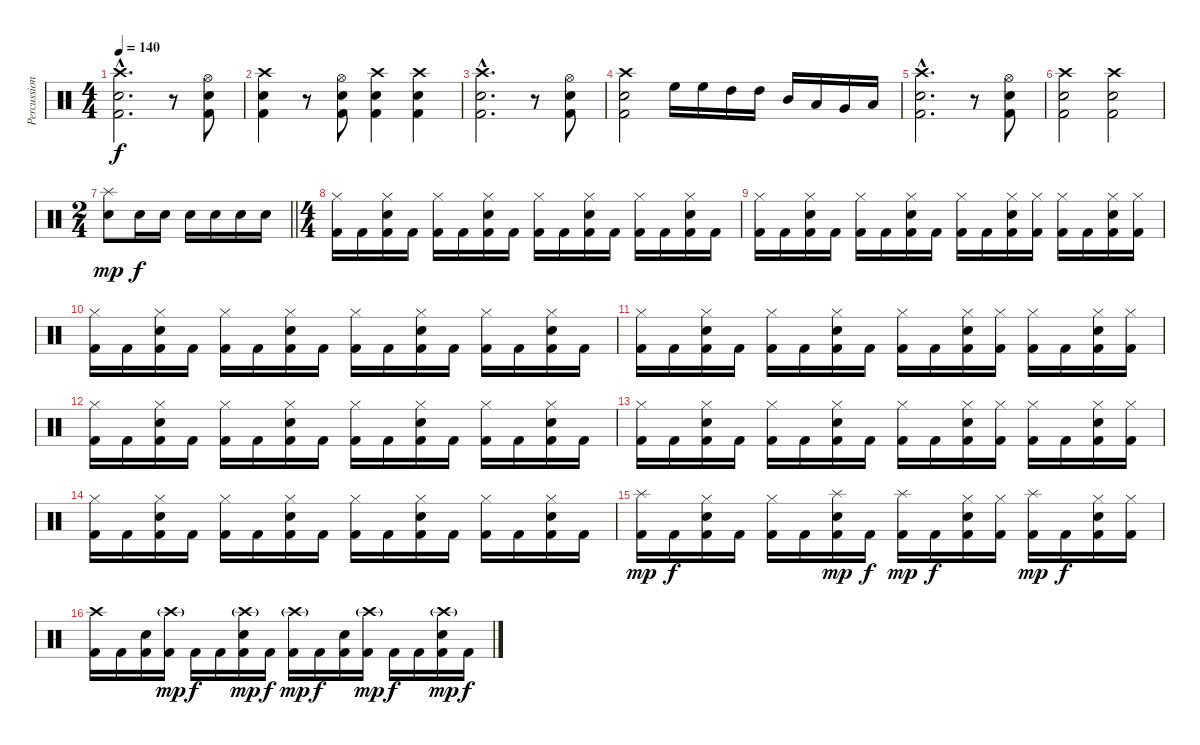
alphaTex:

\track ("Percussion" "Percussion") {instrument percussion}
\staff {score}
\articulation defaults
\ts (4 4)
\tempo 140
\clef neutral
\ks c
("Crash high (hit)"{hac} "Electric Snare (hit)"{hac} "Kick (hit) 2"{hac}).2{d dy f} r.8 ("Hi-Hat (open)" "Electric Snare (hit)" "Kick (hit) 2").8 |
("Crash high (hit)" "Electric Snare (hit)" "Kick (hit) 2").4 r.8 ("Hi-Hat (open)" "Electric Snare (hit)" "Kick (hit) 2").8 ("Crash high (hit)" "Electric Snare (hit)" "Kick (hit) 2").4 ("Crash high (hit)" "Electric Snare (hit)" "Kick (hit) 2").4 |
("Crash high (hit)"{hac} "Electric Snare (hit)"{hac} "Kick (hit) 2"{hac}).2{d} r.8 ("Hi-Hat (open)" "Electric Snare (hit)" "Kick (hit) 2").8 |
("Crash high (hit)" "Electric Snare (hit)" "Kick (hit) 2").2 "High Floor Tom (hit)".16 "High Floor Tom (hit)".16 "High Tom (hit)".16 "High Tom (hit)".16 "Mid Tom (hit)".16 "Low Tom (hit)".16 "Very Low Tom (hit)".16 "Low Floor Tom (hit)".16 |
("Crash high (hit)"{hac} "Electric Snare (hit)"{hac} "Kick (hit) 2"{hac}).2{d} r.8 ("Hi-Hat (open)" "Electric Snare (hit)" "Kick (hit) 2").8 |
("Crash high (hit)" "Electric Snare (hit)" "Kick (hit) 2").2 ("Crash high (hit)" "Electric Snare (hit)" "Kick (hit) 2").2 |
\ts (2 4)
\barLineRight lightlight
("Splash (hit)" "Electric Snare (hit)").8{dy mp} "Electric Snare (hit)".16{dy f} "Electric Snare (hit)".16 "Electric Snare (hit)".16 "Electric Snare (hit)".16 "Electric Snare (hit)".16 "Electric Snare (hit)".16 |
\ts (4 4)
("Hi-Hat (closed)" "Kick (hit) 2").16 "Kick (hit) 2".16 ("Hi-Hat (closed)" "Electric Snare (hit)" "Kick (hit) 2").16 "Kick (hit) 2".16 ("Hi-Hat (closed)" "Kick (hit) 2").16 "Kick (hit) 2".16 ("Hi-Hat (closed)" "Electric Snare (hit)" "Kick (hit) 2").16 "Kick (hit) 2".16 ("Hi-Hat (closed)" "Kick (hit) 2").16 "Kick (hit) 2".16 ("Hi-Hat (closed)" "Electric Snare (hit)" "Kick (hit) 2").16 "Kick (hit) 2".16 ("Hi-Hat (closed)" "Kick (hit) 2").16 "Kick (hit) 2".16 ("Hi-Hat (closed)" "Electric Snare (hit)" "Kick (hit) 2").16 "Kick (hit) 2".16 |
("Hi-Hat (closed)" "Kick (hit) 2").16 "Kick (hit) 2".16 ("Hi-Hat (closed)" "Electric Snare (hit)" "Kick (hit) 2").16 "Kick (hit) 2".16 ("Hi-Hat (closed)" "Kick (hit) 2").16 "Kick (hit) 2".16 ("Hi-Hat (closed)" "Electric Snare (hit)" "Kick (hit) 2").16 "Kick (hit) 2".16 ("Hi-Hat (closed)" "Kick (hit) 2").16 "Kick (hit) 2".16 ("Hi-Hat (closed)" "Electric Snare (hit)" "Kick (hit) 2").16 ("Hi-Hat (closed)" "Kick (hit) 2").16 ("Hi-Hat (closed)" "Kick (hit) 2").16 "Kick (hit) 2".16 ("Hi-Hat (closed)" "Electric Snare (hit)" "Kick (hit) 2").16 ("Hi-Hat (closed)" "Kick (hit) 2").16 |
("Hi-Hat (closed)" "Kick (hit) 2").16 "Kick (hit) 2".16 ("Hi-Hat (closed)" "Electric Snare (hit)" "Kick (hit) 2").16 "Kick (hit) 2".16 ("Hi-Hat (closed)" "Kick (hit) 2").16 "Kick (hit) 2".16 ("Hi-Hat (closed)" "Electric Snare (hit)" "Kick (hit) 2").16 "Kick (hit) 2".16 ("Hi-Hat (closed)" "Kick (hit) 2").16 "Kick (hit) 2".16 ("Hi-Hat (closed)" "Electric Snare (hit)" "Kick (hit) 2").16 "Kick (hit) 2".16 ("Hi-Hat (closed)" "Kick (hit) 2").16 "Kick (hit) 2".16 ("Hi-Hat (closed)" "Electric Snare (hit)" "Kick (hit) 2").16 "Kick (hit) 2".16 |
("Hi-Hat (closed)" "Kick (hit) 2").16 "Kick (hit) 2".16 ("Hi-Hat (closed)" "Electric Snare (hit)" "Kick (hit) 2").16 "Kick (hit) 2".16 ("Hi-Hat (closed)" "Kick (hit) 2").16 "Kick (hit) 2".16 ("Hi-Hat (closed)" "Electric Snare (hit)" "Kick (hit) 2").16 "Kick (hit) 2".16 ("Hi-Hat (closed)" "Kick (hit) 2").16 "Kick (hit) 2".16 ("Hi-Hat (closed)" "Electric Snare (hit)" "Kick (hit) 2").16 ("Hi-Hat (closed)" "Kick (hit) 2").16 ("Hi-Hat (closed)" "Kick (hit) 2").16 "Kick (hit) 2".16 ("Hi-Hat (closed)" "Electric Snare (hit)" "Kick (hit) 2").16 ("Hi-Hat (closed)" "Kick (hit) 2").16 |
("Hi-Hat (closed)" "Kick (hit) 2").16 "Kick (hit) 2".16 ("Hi-Hat (closed)" "Electric Snare (hit)" "Kick (hit) 2").16 "Kick (hit) 2".16 ("Hi-Hat (closed)" "Kick (hit) 2").16 "Kick (hit) 2".16 ("Hi-Hat (closed)" "Electric Snare (hit)" "Kick (hit) 2").16 "Kick (hit) 2".16 ("Hi-Hat (closed)" "Kick (hit) 2").16 "Kick (hit) 2".16 ("Hi-Hat (closed)" "Electric Snare (hit)" "Kick (hit) 2").16 "Kick (hit) 2".16 ("Hi-Hat (closed)" "Kick (hit) 2").16 "Kick (hit) 2".16 ("Hi-Hat (closed)" "Electric Snare (hit)" "Kick (hit) 2").16 "Kick (hit) 2".16 |
("Hi-Hat (closed)" "Kick (hit) 2").16 "Kick (hit) 2".16 ("Hi-Hat (closed)" "Electric Snare (hit)" "Kick (hit) 2").16 "Kick (hit) 2".16 ("Hi-Hat (closed)" "Kick (hit) 2").16 "Kick (hit) 2".16 ("Hi-Hat (closed)" "Electric Snare (hit)" "Kick (hit) 2").16 "Kick (hit) 2".16 ("Hi-Hat (closed)" "Kick (hit) 2").16 "Kick (hit) 2".16 ("Hi-Hat (closed)" "Electric Snare (hit)" "Kick (hit) 2").16 ("Hi-Hat (closed)" "Kick (hit) 2").16 ("Hi-Hat (closed)" "Kick (hit) 2").16 "Kick (hit) 2".16 ("Hi-Hat (closed)" "Electric Snare (hit)" "Kick (hit) 2").16 ("Hi-Hat (closed)" "Kick (hit) 2").16 |
("Hi-Hat (closed)" "Kick (hit) 2").16 "Kick (hit) 2".16 ("Hi-Hat (closed)" "Electric Snare (hit)" "Kick (hit) 2").16 "Kick (hit) 2".16 ("Hi-Hat (closed)" "Kick (hit) 2").16 "Kick (hit) 2".16 ("Hi-Hat (closed)" "Electric Snare (hit)" "Kick (hit) 2").16 "Kick (hit) 2".16 ("Hi-Hat (closed)" "Kick (hit) 2").16 "Kick (hit) 2".16 ("Hi-Hat (closed)" "Electric Snare (hit)" "Kick (hit) 2").16 "Kick (hit) 2".16 ("Hi-Hat (closed)" "Kick (hit) 2").16 "Kick (hit) 2".16 ("Hi-Hat (closed)" "Electric Snare (hit)" "Kick (hit) 2").16 "Kick (hit) 2".16 |
("Splash (hit)" "Kick (hit) 2").16{dy mp} "Kick (hit) 2".16{dy f} ("Hi-Hat (closed)" "Electric Snare (hit)" "Kick (hit) 2").16 "Kick (hit) 2".16 ("Hi-Hat (closed)" "Kick (hit) 2").16 "Kick (hit) 2".16 ("Splash (hit)" "Electric Snare (hit)" "Kick (hit) 2").16{dy mp} "Kick (hit) 2".16{dy f} ("Splash (hit)" "Kick (hit) 2").16{dy mp} "Kick (hit) 2".16{dy f} ("Hi-Hat (closed)" "Electric Snare (hit)" "Kick (hit) 2").16 ("Hi-Hat (closed)" "Kick (hit) 2").16 ("Splash (hit)" "Kick (hit) 2").16{dy mp} "Kick (hit) 2".16{dy f} ("Hi-Hat (closed)" "Electric Snare (hit)" "Kick (hit) 2").16 ("Hi-Hat (closed)" "Kick (hit) 2").16 |
("Crash high (hit)" "Kick (hit) 2").16 "Kick (hit) 2".16 ("Electric Snare (hit)" "Kick (hit) 2").16 ("Crash high (hit)"{g} "Kick (hit) 2").16{dy mp} "Kick (hit) 2".16{dy f} "Kick (hit) 2".16 ("Crash high (hit)"{g} "Electric Snare (hit)" "Kick (hit) 2").16{dy mp} "Kick (hit) 2".16{dy f} ("Crash high (hit)"{g} "Kick (hit) 2").16{dy mp} "Kick (hit) 2".16{dy f} ("Electric Snare (hit)" "Kick (hit) 2").16 ("Crash high (hit)"{g} "Kick (hit) 2").16{dy mp} "Kick (hit) 2".16{dy f} "Kick (hit) 2".16 ("Crash high (hit)"{g} "Electric Snare (hit)" "Kick (hit) 2").16{dy mp} "Kick (hit) 2".16{dy f}
